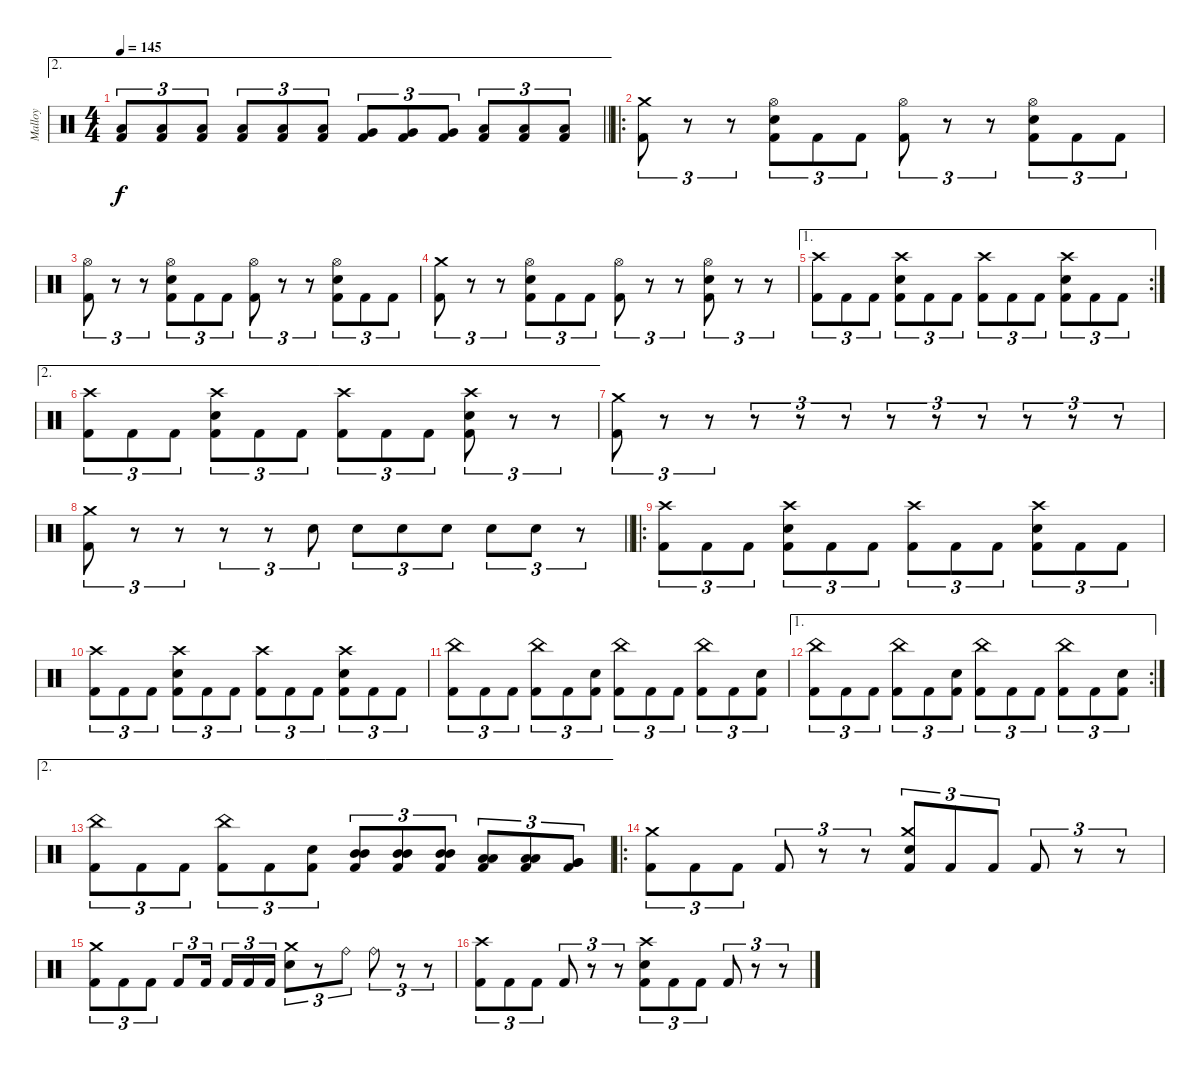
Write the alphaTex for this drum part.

\track ("Malloy" "Malloy") {instrument percussion}
\staff {score}
\articulation defaults
\ae 2
\ts (4 4)
\tempo 145
\clef neutral
\barLineRight lightlight
\ks c
("Kick (hit) 2" "Low Tom (hit)").8{tu (3 2) dy f} ("Kick (hit) 2" "Low Tom (hit)").8{tu (3 2)} ("Kick (hit) 2" "Low Tom (hit)").8{tu (3 2)} ("Kick (hit) 2" "Low Tom (hit)").8{tu (3 2)} ("Kick (hit) 2" "Low Tom (hit)").8{tu (3 2)} ("Kick (hit) 2" "Low Tom (hit)").8{tu (3 2)} ("Kick (hit) 2" "Very Low Tom (hit)").8{tu (3 2)} ("Kick (hit) 2" "Very Low Tom (hit)").8{tu (3 2)} ("Kick (hit) 2" "Very Low Tom (hit)").8{tu (3 2)} ("Kick (hit) 2" "Low Floor Tom (hit)").8{tu (3 2)} ("Kick (hit) 2" "Low Floor Tom (hit)").8{tu (3 2)} ("Kick (hit) 2" "Low Floor Tom (hit)").8{tu (3 2)} |
\ro
("Kick (hit) 2" "Crash medium (hit)").8{tu (3 2)} r.8{tu (3 2)} r.8{tu (3 2)} ("Kick (hit) 2" "Electric Snare (hit)" "Hi-Hat (open)").8{tu (3 2)} "Kick (hit) 2".8{tu (3 2)} "Kick (hit) 2".8{tu (3 2)} ("Kick (hit) 2" "Hi-Hat (open)").8{tu (3 2)} r.8{tu (3 2)} r.8{tu (3 2)} ("Kick (hit) 2" "Electric Snare (hit)" "Hi-Hat (open)").8{tu (3 2)} "Kick (hit) 2".8{tu (3 2)} "Kick (hit) 2".8{tu (3 2)} |
("Kick (hit) 2" "Hi-Hat (open)").8{tu (3 2)} r.8{tu (3 2)} r.8{tu (3 2)} ("Kick (hit) 2" "Electric Snare (hit)" "Hi-Hat (open)").8{tu (3 2)} "Kick (hit) 2".8{tu (3 2)} "Kick (hit) 2".8{tu (3 2)} ("Kick (hit) 2" "Hi-Hat (open)").8{tu (3 2)} r.8{tu (3 2)} r.8{tu (3 2)} ("Kick (hit) 2" "Electric Snare (hit)" "Hi-Hat (open)").8{tu (3 2)} "Kick (hit) 2".8{tu (3 2)} "Kick (hit) 2".8{tu (3 2)} |
("Kick (hit) 2" "Crash medium (hit)").8{tu (3 2)} r.8{tu (3 2)} r.8{tu (3 2)} ("Kick (hit) 2" "Electric Snare (hit)" "Hi-Hat (open)").8{tu (3 2)} "Kick (hit) 2".8{tu (3 2)} "Kick (hit) 2".8{tu (3 2)} ("Kick (hit) 2" "Hi-Hat (open)").8{tu (3 2)} r.8{tu (3 2)} r.8{tu (3 2)} ("Kick (hit) 2" "Electric Snare (hit)" "Hi-Hat (open)").8{tu (3 2)} r.8{tu (3 2)} r.8{tu (3 2)} |
\ae 1
\rc 2
("Kick (hit) 2" "Crash high (hit)").8{tu (3 2)} "Kick (hit) 2".8{tu (3 2)} "Kick (hit) 2".8{tu (3 2)} ("Kick (hit) 2" "Electric Snare (hit)" "Crash high (hit)").8{tu (3 2)} "Kick (hit) 2".8{tu (3 2)} "Kick (hit) 2".8{tu (3 2)} ("Kick (hit) 2" "Crash high (hit)").8{tu (3 2)} "Kick (hit) 2".8{tu (3 2)} "Kick (hit) 2".8{tu (3 2)} ("Kick (hit) 2" "Electric Snare (hit)" "Crash high (hit)").8{tu (3 2)} "Kick (hit) 2".8{tu (3 2)} "Kick (hit) 2".8{tu (3 2)} |
\ae 2
("Kick (hit) 2" "Crash high (hit)").8{tu (3 2)} "Kick (hit) 2".8{tu (3 2)} "Kick (hit) 2".8{tu (3 2)} ("Kick (hit) 2" "Electric Snare (hit)" "Crash high (hit)").8{tu (3 2)} "Kick (hit) 2".8{tu (3 2)} "Kick (hit) 2".8{tu (3 2)} ("Kick (hit) 2" "Crash high (hit)").8{tu (3 2)} "Kick (hit) 2".8{tu (3 2)} "Kick (hit) 2".8{tu (3 2)} ("Kick (hit) 2" "Electric Snare (hit)" "Crash high (hit)").8{tu (3 2)} r.8{tu (3 2)} r.8{tu (3 2)} |
("Kick (hit) 2" "Crash medium (hit)").8{tu (3 2)} r.8{tu (3 2)} r.8{tu (3 2)} r.8{tu (3 2)} r.8{tu (3 2)} r.8{tu (3 2)} r.8{tu (3 2)} r.8{tu (3 2)} r.8{tu (3 2)} r.8{tu (3 2)} r.8{tu (3 2)} r.8{tu (3 2)} |
\barLineRight lightlight
("Kick (hit) 2" "Crash medium (hit)").8{tu (3 2)} r.8{tu (3 2)} r.8{tu (3 2)} r.8{tu (3 2)} r.8{tu (3 2)} "Electric Snare (hit)".8{tu (3 2)} "Electric Snare (hit)".8{tu (3 2)} "Electric Snare (hit)".8{tu (3 2)} "Electric Snare (hit)".8{tu (3 2)} "Electric Snare (hit)".8{tu (3 2)} "Electric Snare (hit)".8{tu (3 2)} r.8{tu (3 2)} |
\ro
("Kick (hit) 2" "Crash high (hit)").8{tu (3 2)} "Kick (hit) 2".8{tu (3 2)} "Kick (hit) 2".8{tu (3 2)} ("Kick (hit) 2" "Electric Snare (hit)" "Crash high (hit)").8{tu (3 2)} "Kick (hit) 2".8{tu (3 2)} "Kick (hit) 2".8{tu (3 2)} ("Kick (hit) 2" "Crash high (hit)").8{tu (3 2)} "Kick (hit) 2".8{tu (3 2)} "Kick (hit) 2".8{tu (3 2)} ("Kick (hit) 2" "Electric Snare (hit)" "Crash high (hit)").8{tu (3 2)} "Kick (hit) 2".8{tu (3 2)} "Kick (hit) 2".8{tu (3 2)} |
("Kick (hit) 2" "Crash high (hit)").8{tu (3 2)} "Kick (hit) 2".8{tu (3 2)} "Kick (hit) 2".8{tu (3 2)} ("Kick (hit) 2" "Electric Snare (hit)" "Crash high (hit)").8{tu (3 2)} "Kick (hit) 2".8{tu (3 2)} "Kick (hit) 2".8{tu (3 2)} ("Kick (hit) 2" "Crash high (hit)").8{tu (3 2)} "Kick (hit) 2".8{tu (3 2)} "Kick (hit) 2".8{tu (3 2)} ("Kick (hit) 2" "Electric Snare (hit)" "Crash high (hit)").8{tu (3 2)} "Kick (hit) 2".8{tu (3 2)} "Kick (hit) 2".8{tu (3 2)} |
("Kick (hit) 2" "China (hit)").8{tu (3 2)} "Kick (hit) 2".8{tu (3 2)} "Kick (hit) 2".8{tu (3 2)} ("Kick (hit) 2" "China (hit)").8{tu (3 2)} "Kick (hit) 2".8{tu (3 2)} ("Kick (hit) 2" "Electric Snare (hit)").8{tu (3 2)} ("Kick (hit) 2" "China (hit)").8{tu (3 2)} "Kick (hit) 2".8{tu (3 2)} "Kick (hit) 2".8{tu (3 2)} ("Kick (hit) 2" "China (hit)").8{tu (3 2)} "Kick (hit) 2".8{tu (3 2)} ("Kick (hit) 2" "Electric Snare (hit)").8{tu (3 2)} |
\ae 1
\rc 2
("Kick (hit) 2" "China (hit)").8{tu (3 2)} "Kick (hit) 2".8{tu (3 2)} "Kick (hit) 2".8{tu (3 2)} ("Kick (hit) 2" "China (hit)").8{tu (3 2)} "Kick (hit) 2".8{tu (3 2)} ("Kick (hit) 2" "Electric Snare (hit)").8{tu (3 2)} ("Kick (hit) 2" "China (hit)").8{tu (3 2)} "Kick (hit) 2".8{tu (3 2)} "Kick (hit) 2".8{tu (3 2)} ("Kick (hit) 2" "China (hit)").8{tu (3 2)} "Kick (hit) 2".8{tu (3 2)} ("Kick (hit) 2" "Electric Snare (hit)").8{tu (3 2)} |
\ae 2
("Kick (hit) 2" "China (hit)").8{tu (3 2)} "Kick (hit) 2".8{tu (3 2)} "Kick (hit) 2".8{tu (3 2)} ("Kick (hit) 2" "China (hit)").8{tu (3 2)} "Kick (hit) 2".8{tu (3 2)} ("Kick (hit) 2" "Electric Snare (hit)").8{tu (3 2)} ("Kick (hit) 2" "Mid Tom (hit)" "Mid Tom (hit)").8{tu (3 2)} ("Kick (hit) 2" "Mid Tom (hit)" "Mid Tom (hit)").8{tu (3 2)} ("Kick (hit) 2" "Mid Tom (hit)" "Mid Tom (hit)").8{tu (3 2)} ("Kick (hit) 2" "Low Tom (hit)" "Low Tom (hit)").8{tu (3 2)} ("Kick (hit) 2" "Low Tom (hit)" "Low Tom (hit)").8{tu (3 2)} ("Kick (hit) 2" "Very Low Tom (hit)" "Very Low Tom (hit)").8{tu (3 2)} |
\ro
("Kick (hit) 2" "Crash medium (hit)").8{tu (3 2)} "Kick (hit) 2".8{tu (3 2)} "Kick (hit) 2".8{tu (3 2)} "Kick (hit) 2".8{tu (3 2)} r.8{tu (3 2)} r.8{tu (3 2)} ("Kick (hit) 2" "Electric Snare (hit)" "Crash medium (hit)").8{tu (3 2)} "Kick (hit) 2".8{tu (3 2)} "Kick (hit) 2".8{tu (3 2)} "Kick (hit) 2".8{tu (3 2)} r.8{tu (3 2)} r.8{tu (3 2)} |
("Kick (hit) 2" "Crash medium (hit)").8{tu (3 2)} "Kick (hit) 2".8{tu (3 2)} "Kick (hit) 2".8{tu (3 2)} "Kick (hit) 2".8{tu (3 2)} "Kick (hit) 2".16{tu (3 2) beam splitsecondary} "Kick (hit) 2".16{tu (3 2)} "Kick (hit) 2".16{tu (3 2)} "Kick (hit) 2".16{tu (3 2)} ("Electric Snare (hit)" "Crash medium (hit)").8{tu (3 2)} r.8{tu (3 2)} "Ride (bell)".8{tu (3 2)} "Ride (bell)".8{tu (3 2)} r.8{tu (3 2)} r.8{tu (3 2)} |
("Kick (hit) 2" "Crash high (hit)").8{tu (3 2)} "Kick (hit) 2".8{tu (3 2)} "Kick (hit) 2".8{tu (3 2)} "Kick (hit) 2".8{tu (3 2)} r.8{tu (3 2)} r.8{tu (3 2)} ("Kick (hit) 2" "Electric Snare (hit)" "Crash high (hit)").8{tu (3 2)} "Kick (hit) 2".8{tu (3 2)} "Kick (hit) 2".8{tu (3 2)} "Kick (hit) 2".8{tu (3 2)} r.8{tu (3 2)} r.8{tu (3 2)}
